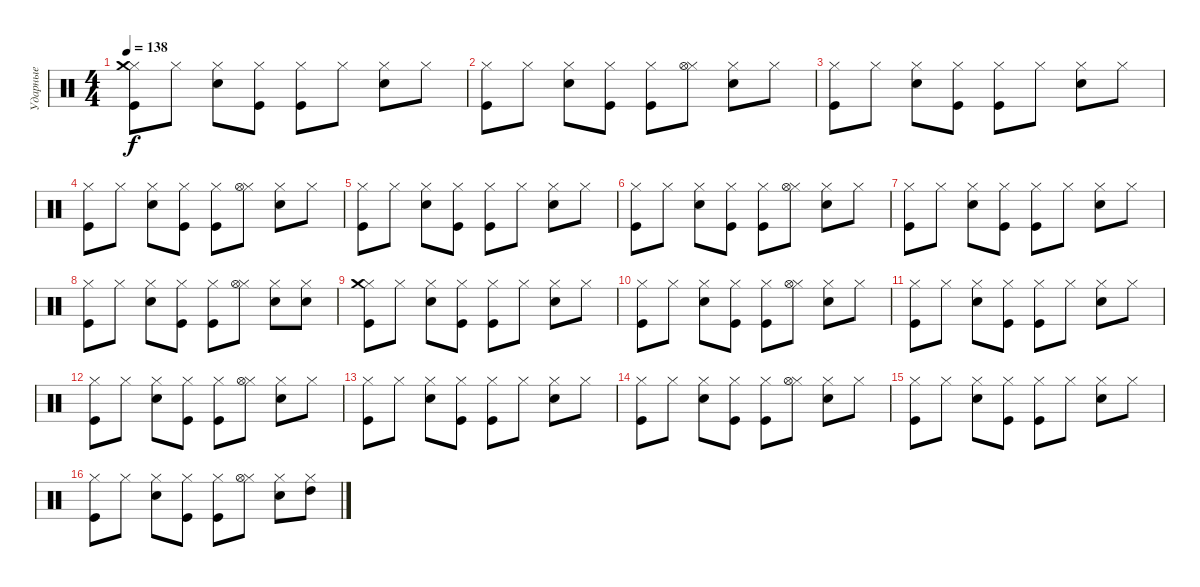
\track ("Ударные" "Ударные") {instrument percussion}
\staff {score}
\articulation defaults
\ts (4 4)
\tempo 138
\clef neutral
\ks c
("Hi-Hat (closed)" "Kick (hit)" "Crash medium (hit)").8{dy f} "Hi-Hat (closed)".8 ("Hi-Hat (closed)" "Snare (hit) 2").8 ("Hi-Hat (closed)" "Kick (hit)").8 ("Hi-Hat (closed)" "Kick (hit)").8 "Hi-Hat (closed)".8 ("Hi-Hat (closed)" "Snare (hit) 2").8 "Hi-Hat (closed)".8 |
("Hi-Hat (closed)" "Kick (hit)").8 "Hi-Hat (closed)".8 ("Hi-Hat (closed)" "Snare (hit) 2").8 ("Hi-Hat (closed)" "Kick (hit)").8 ("Hi-Hat (closed)" "Kick (hit)").8 ("Hi-Hat (closed)" "Hi-Hat (open)").8 ("Hi-Hat (closed)" "Snare (hit) 2").8 "Hi-Hat (closed)".8 |
("Hi-Hat (closed)" "Kick (hit)").8 "Hi-Hat (closed)".8 ("Hi-Hat (closed)" "Snare (hit) 2").8 ("Hi-Hat (closed)" "Kick (hit)").8 ("Hi-Hat (closed)" "Kick (hit)").8 "Hi-Hat (closed)".8 ("Hi-Hat (closed)" "Snare (hit) 2").8 "Hi-Hat (closed)".8 |
("Hi-Hat (closed)" "Kick (hit)").8 "Hi-Hat (closed)".8 ("Hi-Hat (closed)" "Snare (hit) 2").8 ("Hi-Hat (closed)" "Kick (hit)").8 ("Hi-Hat (closed)" "Kick (hit)").8 ("Hi-Hat (closed)" "Hi-Hat (open)").8 ("Hi-Hat (closed)" "Snare (hit) 2").8 "Hi-Hat (closed)".8 |
("Hi-Hat (closed)" "Kick (hit)").8 "Hi-Hat (closed)".8 ("Hi-Hat (closed)" "Snare (hit) 2").8 ("Hi-Hat (closed)" "Kick (hit)").8 ("Hi-Hat (closed)" "Kick (hit)").8 "Hi-Hat (closed)".8 ("Hi-Hat (closed)" "Snare (hit) 2").8 "Hi-Hat (closed)".8 |
("Hi-Hat (closed)" "Kick (hit)").8 "Hi-Hat (closed)".8 ("Hi-Hat (closed)" "Snare (hit) 2").8 ("Hi-Hat (closed)" "Kick (hit)").8 ("Hi-Hat (closed)" "Kick (hit)").8 ("Hi-Hat (closed)" "Hi-Hat (open)").8 ("Hi-Hat (closed)" "Snare (hit) 2").8 "Hi-Hat (closed)".8 |
("Hi-Hat (closed)" "Kick (hit)").8 "Hi-Hat (closed)".8 ("Hi-Hat (closed)" "Snare (hit) 2").8 ("Hi-Hat (closed)" "Kick (hit)").8 ("Hi-Hat (closed)" "Kick (hit)").8 "Hi-Hat (closed)".8 ("Hi-Hat (closed)" "Snare (hit) 2").8 "Hi-Hat (closed)".8 |
("Hi-Hat (closed)" "Kick (hit)").8 "Hi-Hat (closed)".8 ("Hi-Hat (closed)" "Snare (hit) 2").8 ("Hi-Hat (closed)" "Kick (hit)").8 ("Hi-Hat (closed)" "Kick (hit)").8 ("Hi-Hat (closed)" "Hi-Hat (open)").8 ("Hi-Hat (closed)" "Snare (hit) 2").8 ("Hi-Hat (closed)" "Snare (hit) 2").8 |
("Hi-Hat (closed)" "Kick (hit)" "Crash medium (hit)").8 "Hi-Hat (closed)".8 ("Hi-Hat (closed)" "Snare (hit) 2").8 ("Hi-Hat (closed)" "Kick (hit)").8 ("Hi-Hat (closed)" "Kick (hit)").8 "Hi-Hat (closed)".8 ("Hi-Hat (closed)" "Snare (hit) 2").8 "Hi-Hat (closed)".8 |
("Hi-Hat (closed)" "Kick (hit)").8 "Hi-Hat (closed)".8 ("Hi-Hat (closed)" "Snare (hit) 2").8 ("Hi-Hat (closed)" "Kick (hit)").8 ("Hi-Hat (closed)" "Kick (hit)").8 ("Hi-Hat (closed)" "Hi-Hat (open)").8 ("Hi-Hat (closed)" "Snare (hit) 2").8 "Hi-Hat (closed)".8 |
("Hi-Hat (closed)" "Kick (hit)").8 "Hi-Hat (closed)".8 ("Hi-Hat (closed)" "Snare (hit) 2").8 ("Hi-Hat (closed)" "Kick (hit)").8 ("Hi-Hat (closed)" "Kick (hit)").8 "Hi-Hat (closed)".8 ("Hi-Hat (closed)" "Snare (hit) 2").8 "Hi-Hat (closed)".8 |
("Hi-Hat (closed)" "Kick (hit)").8 "Hi-Hat (closed)".8 ("Hi-Hat (closed)" "Snare (hit) 2").8 ("Hi-Hat (closed)" "Kick (hit)").8 ("Hi-Hat (closed)" "Kick (hit)").8 ("Hi-Hat (closed)" "Hi-Hat (open)").8 ("Hi-Hat (closed)" "Snare (hit) 2").8 "Hi-Hat (closed)".8 |
("Hi-Hat (closed)" "Kick (hit)").8 "Hi-Hat (closed)".8 ("Hi-Hat (closed)" "Snare (hit) 2").8 ("Hi-Hat (closed)" "Kick (hit)").8 ("Hi-Hat (closed)" "Kick (hit)").8 "Hi-Hat (closed)".8 ("Hi-Hat (closed)" "Snare (hit) 2").8 "Hi-Hat (closed)".8 |
("Hi-Hat (closed)" "Kick (hit)").8 "Hi-Hat (closed)".8 ("Hi-Hat (closed)" "Snare (hit) 2").8 ("Hi-Hat (closed)" "Kick (hit)").8 ("Hi-Hat (closed)" "Kick (hit)").8 ("Hi-Hat (closed)" "Hi-Hat (open)").8 ("Hi-Hat (closed)" "Snare (hit) 2").8 "Hi-Hat (closed)".8 |
("Hi-Hat (closed)" "Kick (hit)").8 "Hi-Hat (closed)".8 ("Hi-Hat (closed)" "Snare (hit) 2").8 ("Hi-Hat (closed)" "Kick (hit)").8 ("Hi-Hat (closed)" "Kick (hit)").8 "Hi-Hat (closed)".8 ("Hi-Hat (closed)" "Snare (hit) 2").8 "Hi-Hat (closed)".8 |
("Hi-Hat (closed)" "Kick (hit)").8 "Hi-Hat (closed)".8 ("Hi-Hat (closed)" "Snare (hit) 2").8 ("Hi-Hat (closed)" "Kick (hit)").8 ("Hi-Hat (closed)" "Kick (hit)").8 ("Hi-Hat (closed)" "Hi-Hat (open)").8 ("Hi-Hat (closed)" "Snare (hit) 2").8 ("Hi-Hat (closed)" "High Tom (hit)").8
